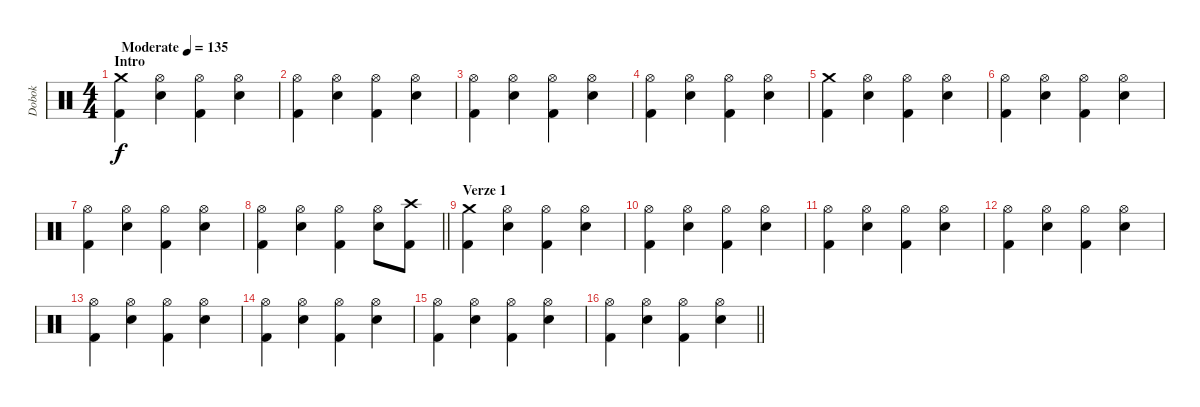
\track ("Dobok" "Dobok") {instrument percussion}
\staff {score}
\articulation defaults
\ts (4 4)
\section ("" "Intro")
\tempo (135 "Moderate")
\clef neutral
\ks c
("Crash medium (hit)" "Kick (hit) 2").4{dy f} ("Hi-Hat (open)" "Electric Snare (hit)").4 ("Hi-Hat (open)" "Kick (hit) 2").4 ("Hi-Hat (open)" "Electric Snare (hit)").4 |
("Hi-Hat (open)" "Kick (hit) 2").4 ("Hi-Hat (open)" "Electric Snare (hit)").4 ("Hi-Hat (open)" "Kick (hit) 2").4 ("Hi-Hat (open)" "Electric Snare (hit)").4 |
("Hi-Hat (open)" "Kick (hit) 2").4 ("Hi-Hat (open)" "Electric Snare (hit)").4 ("Hi-Hat (open)" "Kick (hit) 2").4 ("Hi-Hat (open)" "Electric Snare (hit)").4 |
("Hi-Hat (open)" "Kick (hit) 2").4 ("Hi-Hat (open)" "Electric Snare (hit)").4 ("Hi-Hat (open)" "Kick (hit) 2").4 ("Hi-Hat (open)" "Electric Snare (hit)").4 |
("Crash medium (hit)" "Kick (hit) 2").4 ("Hi-Hat (open)" "Electric Snare (hit)").4 ("Hi-Hat (open)" "Kick (hit) 2").4 ("Hi-Hat (open)" "Electric Snare (hit)").4 |
("Hi-Hat (open)" "Kick (hit) 2").4 ("Hi-Hat (open)" "Electric Snare (hit)").4 ("Hi-Hat (open)" "Kick (hit) 2").4 ("Hi-Hat (open)" "Electric Snare (hit)").4 |
("Hi-Hat (open)" "Kick (hit) 2").4 ("Hi-Hat (open)" "Electric Snare (hit)").4 ("Hi-Hat (open)" "Kick (hit) 2").4 ("Hi-Hat (open)" "Electric Snare (hit)").4 |
\barLineRight lightlight
("Hi-Hat (open)" "Kick (hit) 2").4 ("Hi-Hat (open)" "Electric Snare (hit)").4 ("Hi-Hat (open)" "Kick (hit) 2").4 ("Hi-Hat (open)" "Electric Snare (hit)").8 ("Crash high (hit)" "Kick (hit) 2").8 |
\section ("" "Verze 1")
("Crash medium (hit)" "Kick (hit) 2").4 ("Hi-Hat (open)" "Electric Snare (hit)").4 ("Hi-Hat (open)" "Kick (hit) 2").4 ("Hi-Hat (open)" "Electric Snare (hit)").4 |
("Hi-Hat (open)" "Kick (hit) 2").4 ("Hi-Hat (open)" "Electric Snare (hit)").4 ("Hi-Hat (open)" "Kick (hit) 2").4 ("Hi-Hat (open)" "Electric Snare (hit)").4 |
("Hi-Hat (open)" "Kick (hit) 2").4 ("Hi-Hat (open)" "Electric Snare (hit)").4 ("Hi-Hat (open)" "Kick (hit) 2").4 ("Hi-Hat (open)" "Electric Snare (hit)").4 |
("Hi-Hat (open)" "Kick (hit) 2").4 ("Hi-Hat (open)" "Electric Snare (hit)").4 ("Hi-Hat (open)" "Kick (hit) 2").4 ("Hi-Hat (open)" "Electric Snare (hit)").4 |
("Hi-Hat (open)" "Kick (hit) 2").4 ("Hi-Hat (open)" "Electric Snare (hit)").4 ("Hi-Hat (open)" "Kick (hit) 2").4 ("Hi-Hat (open)" "Electric Snare (hit)").4 |
("Hi-Hat (open)" "Kick (hit) 2").4 ("Hi-Hat (open)" "Electric Snare (hit)").4 ("Hi-Hat (open)" "Kick (hit) 2").4 ("Hi-Hat (open)" "Electric Snare (hit)").4 |
("Hi-Hat (open)" "Kick (hit) 2").4 ("Hi-Hat (open)" "Electric Snare (hit)").4 ("Hi-Hat (open)" "Kick (hit) 2").4 ("Hi-Hat (open)" "Electric Snare (hit)").4 |
\barLineRight lightlight
("Hi-Hat (open)" "Kick (hit) 2").4 ("Hi-Hat (open)" "Electric Snare (hit)").4 ("Hi-Hat (open)" "Kick (hit) 2").4 ("Hi-Hat (open)" "Electric Snare (hit)").4
